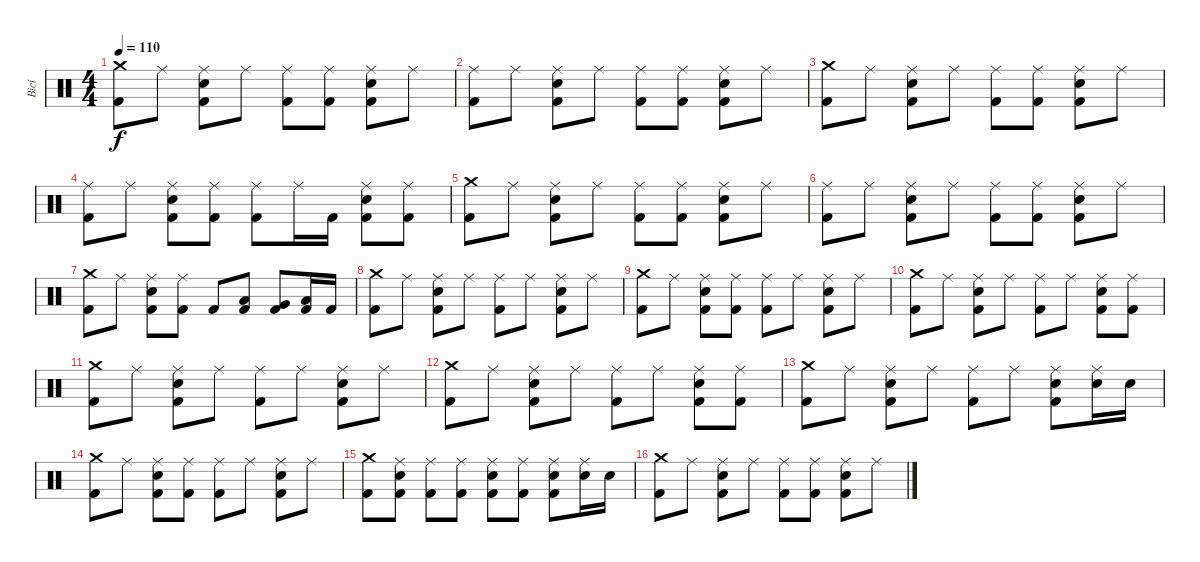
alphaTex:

\track ("Bicí" "Bicí") {instrument percussion}
\staff {score}
\articulation defaults
\ts (4 4)
\tempo 110
\clef neutral
\ks c
("Crash medium (hit)" "Kick (hit) 2").8{dy f} "Ride (middle)".8 ("Ride (middle)" "Electric Snare (hit)" "Kick (hit) 2").8 "Ride (middle)".8 ("Ride (middle)" "Kick (hit) 2").8 ("Ride (middle)" "Kick (hit) 2").8 ("Ride (middle)" "Electric Snare (hit)" "Kick (hit) 2").8 "Ride (middle)".8 |
("Ride (middle)" "Kick (hit) 2").8 "Ride (middle)".8 ("Ride (middle)" "Electric Snare (hit)" "Kick (hit) 2").8 "Ride (middle)".8 ("Ride (middle)" "Kick (hit) 2").8 ("Ride (middle)" "Kick (hit) 2").8 ("Ride (middle)" "Electric Snare (hit)" "Kick (hit) 2").8 "Ride (middle)".8 |
("Crash medium (hit)" "Kick (hit) 2").8 "Ride (middle)".8 ("Ride (middle)" "Electric Snare (hit)" "Kick (hit) 2").8 "Ride (middle)".8 ("Ride (middle)" "Kick (hit) 2").8 ("Ride (middle)" "Kick (hit) 2").8 ("Ride (middle)" "Electric Snare (hit)" "Kick (hit) 2").8 "Ride (middle)".8 |
("Ride (middle)" "Kick (hit) 2").8 "Ride (middle)".8 ("Ride (middle)" "Electric Snare (hit)" "Kick (hit) 2").8 ("Ride (middle)" "Kick (hit) 2").8 ("Ride (middle)" "Kick (hit) 2").8 "Ride (middle)".16 "Kick (hit) 2".16 ("Ride (middle)" "Electric Snare (hit)" "Kick (hit) 2").8 ("Ride (middle)" "Kick (hit) 2").8 |
("Crash medium (hit)" "Kick (hit) 2").8 "Ride (middle)".8 ("Ride (middle)" "Electric Snare (hit)" "Kick (hit) 2").8 "Ride (middle)".8 ("Ride (middle)" "Kick (hit) 2").8 ("Ride (middle)" "Kick (hit) 2").8 ("Ride (middle)" "Electric Snare (hit)" "Kick (hit) 2").8 "Ride (middle)".8 |
("Ride (middle)" "Kick (hit) 2").8 "Ride (middle)".8 ("Ride (middle)" "Electric Snare (hit)" "Kick (hit) 2").8 "Ride (middle)".8 ("Ride (middle)" "Kick (hit) 2").8 ("Ride (middle)" "Kick (hit) 2").8 ("Ride (middle)" "Electric Snare (hit)" "Kick (hit) 2").8 "Ride (middle)".8 |
("Crash medium (hit)" "Kick (hit) 2").8 "Ride (middle)".8 ("Ride (middle)" "Electric Snare (hit)" "Kick (hit) 2").8 ("Ride (middle)" "Kick (hit) 2").8 "Kick (hit) 2".8 ("Low Tom (hit)" "Kick (hit) 2").8 ("Very Low Tom (hit)" "Kick (hit) 2").8 ("Low Floor Tom (hit)" "Kick (hit) 2").16 "Kick (hit) 2".16 |
("Crash medium (hit)" "Kick (hit) 2").8 "Ride (middle)".8 ("Ride (middle)" "Electric Snare (hit)" "Kick (hit) 2").8 "Ride (middle)".8 ("Ride (middle)" "Kick (hit) 2").8 "Ride (middle)".8 ("Ride (middle)" "Electric Snare (hit)" "Kick (hit) 2").8 "Ride (middle)".8 |
("Crash medium (hit)" "Kick (hit) 2").8 "Ride (middle)".8 ("Ride (middle)" "Electric Snare (hit)" "Kick (hit) 2").8 ("Ride (middle)" "Kick (hit) 2").8 ("Ride (middle)" "Kick (hit) 2").8 "Ride (middle)".8 ("Ride (middle)" "Electric Snare (hit)" "Kick (hit) 2").8 "Ride (middle)".8 |
("Crash medium (hit)" "Kick (hit) 2").8 "Ride (middle)".8 ("Ride (middle)" "Electric Snare (hit)" "Kick (hit) 2").8 "Ride (middle)".8 ("Ride (middle)" "Kick (hit) 2").8 "Ride (middle)".8 ("Ride (middle)" "Electric Snare (hit)" "Kick (hit) 2").8 ("Ride (middle)" "Kick (hit) 2").8 |
("Crash medium (hit)" "Kick (hit) 2").8 "Ride (middle)".8 ("Ride (middle)" "Electric Snare (hit)" "Kick (hit) 2").8 "Ride (middle)".8 ("Ride (middle)" "Kick (hit) 2").8 "Ride (middle)".8 ("Ride (middle)" "Electric Snare (hit)" "Kick (hit) 2").8 "Ride (middle)".8 |
("Crash medium (hit)" "Kick (hit) 2").8 "Ride (middle)".8 ("Ride (middle)" "Electric Snare (hit)" "Kick (hit) 2").8 "Ride (middle)".8 ("Ride (middle)" "Kick (hit) 2").8 "Ride (middle)".8 ("Ride (middle)" "Electric Snare (hit)" "Kick (hit) 2").8 ("Ride (middle)" "Kick (hit) 2").8 |
("Crash medium (hit)" "Kick (hit) 2").8 "Ride (middle)".8 ("Ride (middle)" "Electric Snare (hit)" "Kick (hit) 2").8 "Ride (middle)".8 ("Ride (middle)" "Kick (hit) 2").8 "Ride (middle)".8 ("Ride (middle)" "Electric Snare (hit)" "Kick (hit) 2").8 ("Ride (middle)" "Electric Snare (hit)").16 "Electric Snare (hit)".16 |
("Crash medium (hit)" "Kick (hit) 2").8 "Ride (middle)".8 ("Ride (middle)" "Electric Snare (hit)" "Kick (hit) 2").8 ("Ride (middle)" "Kick (hit) 2").8 ("Ride (middle)" "Kick (hit) 2").8 "Ride (middle)".8 ("Ride (middle)" "Electric Snare (hit)" "Kick (hit) 2").8 "Ride (middle)".8 |
("Crash medium (hit)" "Kick (hit) 2").8 ("Ride (middle)" "Electric Snare (hit)" "Kick (hit) 2").8 ("Ride (middle)" "Kick (hit) 2").8 ("Ride (middle)" "Kick (hit) 2").8 ("Ride (middle)" "Electric Snare (hit)" "Kick (hit) 2").8 ("Ride (middle)" "Kick (hit) 2").8 ("Ride (middle)" "Electric Snare (hit)" "Kick (hit) 2").8 ("Ride (middle)" "Electric Snare (hit)").16 "Electric Snare (hit)".16 |
("Crash medium (hit)" "Kick (hit) 2").8 "Ride (middle)".8 ("Ride (middle)" "Electric Snare (hit)" "Kick (hit) 2").8 "Ride (middle)".8 ("Ride (middle)" "Kick (hit) 2").8 ("Ride (middle)" "Kick (hit) 2").8 ("Ride (middle)" "Electric Snare (hit)" "Kick (hit) 2").8 "Ride (middle)".8
